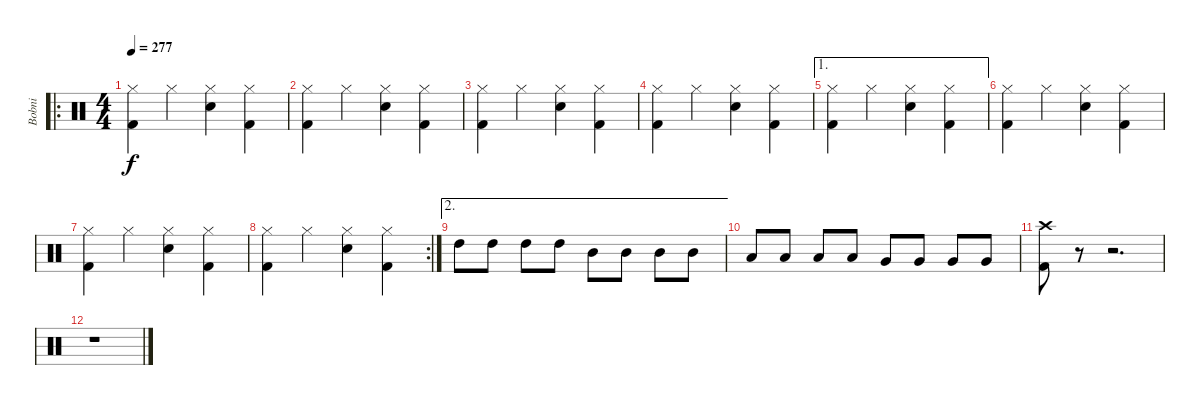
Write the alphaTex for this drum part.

\track ("Bobni" "Bobni") {instrument percussion}
\staff {score}
\articulation defaults
\ro
\ts (4 4)
\tempo 277
\clef neutral
\ks c
("Hi-Hat (closed)" "Kick (hit) 2").4{dy f} "Hi-Hat (closed)".4 ("Hi-Hat (closed)" "Snare (hit) 2").4 ("Hi-Hat (closed)" "Kick (hit) 2").4 |
("Hi-Hat (closed)" "Kick (hit) 2").4 "Hi-Hat (closed)".4 ("Hi-Hat (closed)" "Snare (hit) 2").4 ("Hi-Hat (closed)" "Kick (hit) 2").4 |
("Hi-Hat (closed)" "Kick (hit) 2").4 "Hi-Hat (closed)".4 ("Hi-Hat (closed)" "Snare (hit) 2").4 ("Hi-Hat (closed)" "Kick (hit) 2").4 |
("Hi-Hat (closed)" "Kick (hit) 2").4 "Hi-Hat (closed)".4 ("Hi-Hat (closed)" "Snare (hit) 2").4 ("Hi-Hat (closed)" "Kick (hit) 2").4 |
\ae 1
("Hi-Hat (closed)" "Kick (hit) 2").4 "Hi-Hat (closed)".4 ("Hi-Hat (closed)" "Snare (hit) 2").4 ("Hi-Hat (closed)" "Kick (hit) 2").4 |
("Hi-Hat (closed)" "Kick (hit) 2").4 "Hi-Hat (closed)".4 ("Hi-Hat (closed)" "Snare (hit) 2").4 ("Hi-Hat (closed)" "Kick (hit) 2").4 |
("Hi-Hat (closed)" "Kick (hit) 2").4 "Hi-Hat (closed)".4 ("Hi-Hat (closed)" "Snare (hit) 2").4 ("Hi-Hat (closed)" "Kick (hit) 2").4 |
\rc 2
("Hi-Hat (closed)" "Kick (hit) 2").4 "Hi-Hat (closed)".4 ("Hi-Hat (closed)" "Snare (hit) 2").4 ("Hi-Hat (closed)" "Kick (hit) 2").4 |
\ae 2 "High Tom (hit)".8 "High Tom (hit)".8 "High Tom (hit)".8 "High Tom (hit)".8 "Mid Tom (hit)".8 "Mid Tom (hit)".8 "Mid Tom (hit)".8 "Mid Tom (hit)".8
|
"Low Tom (hit)".8 "Low Tom (hit)".8 "Low Tom (hit)".8 "Low Tom (hit)".8 "Very Low Tom (hit)".8 "Very Low Tom (hit)".8 "Very Low Tom (hit)".8 "Very Low Tom (hit)".8 |
("Crash high (hit)" "Kick (hit) 2").8 r.8 r.2{d} |
r.1
